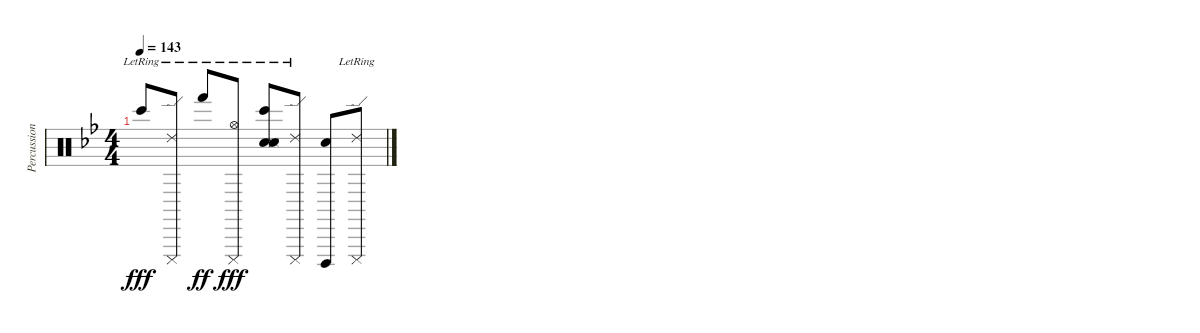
\track ("Percussion" "Percussion") {instrument percussion}
\staff {score}
\articulation defaults
\ts (4 4)
\tempo 143
\clef neutral
\ks gminor "Bongo High (hit)"{lr}.8{dy fff}
("Cuica (mute)" "Ride (edge) 2"{lr}).8 "Hand (hit)"{lr}.8{dy ff} ("Cuica (mute)" "Hi-Hat (open)"{lr}).8{dy fff} ("Snare (hit) 2" "Snare (side stick) 3" "Snare (hit) 2" "Bongo High (hit)"{lr}).8 ("Cuica (mute)" "Ride (edge) 2"{lr}).8 ("Cuica (open)" "Snare (hit) 2").8 ("Cuica (mute)" "Ride (edge) 2"{lr}).8
